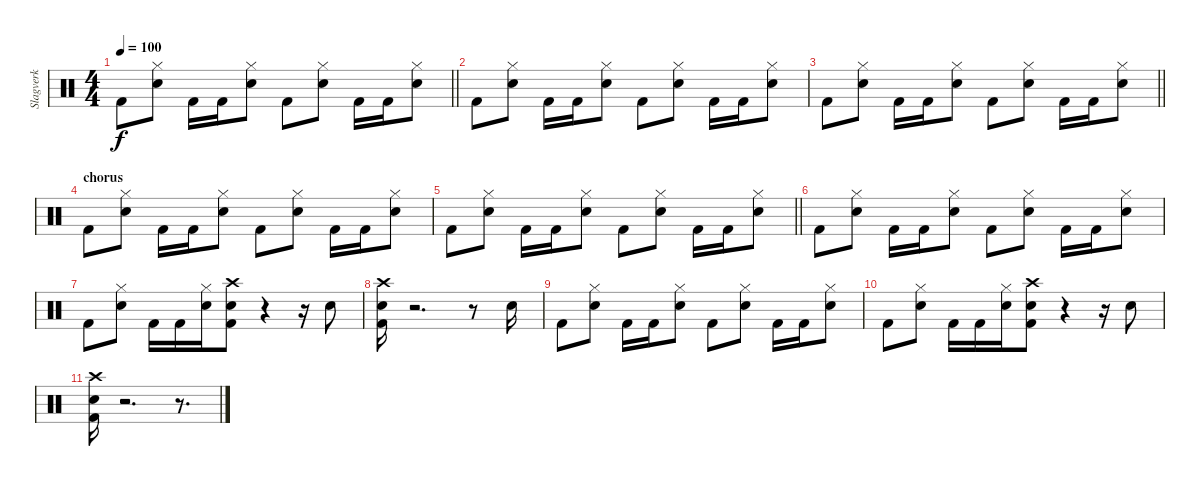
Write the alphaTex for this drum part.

\track ("Slagverk" "Slagverk") {instrument percussion}
\staff {score}
\articulation defaults
\ts (4 4)
\tempo 100
\clef neutral
\barLineRight lightlight
\ks c "Kick (hit) 2".8{dy f}
("Snare (hit) 2" "Hi-Hat (closed)").8 "Kick (hit) 2".16 "Kick (hit) 2".16 ("Snare (hit) 2" "Hi-Hat (closed)").8 "Kick (hit) 2".8 ("Snare (hit) 2" "Hi-Hat (closed)").8 "Kick (hit) 2".16 "Kick (hit) 2".16 ("Snare (hit) 2" "Hi-Hat (closed)").8 |
"Kick (hit) 2".8 ("Snare (hit) 2" "Hi-Hat (closed)").8 "Kick (hit) 2".16 "Kick (hit) 2".16 ("Snare (hit) 2" "Hi-Hat (closed)").8 "Kick (hit) 2".8 ("Snare (hit) 2" "Hi-Hat (closed)").8 "Kick (hit) 2".16 "Kick (hit) 2".16 ("Snare (hit) 2" "Hi-Hat (closed)").8 |
\barLineRight lightlight "Kick (hit) 2".8
("Snare (hit) 2" "Hi-Hat (closed)").8 "Kick (hit) 2".16 "Kick (hit) 2".16 ("Snare (hit) 2" "Hi-Hat (closed)").8 "Kick (hit) 2".8 ("Snare (hit) 2" "Hi-Hat (closed)").8 "Kick (hit) 2".16 "Kick (hit) 2".16 ("Snare (hit) 2" "Hi-Hat (closed)").8 |
\section ("" "chorus")
"Kick (hit) 2".8 ("Snare (hit) 2" "Hi-Hat (closed)").8 "Kick (hit) 2".16 "Kick (hit) 2".16 ("Snare (hit) 2" "Hi-Hat (closed)").8 "Kick (hit) 2".8 ("Snare (hit) 2" "Hi-Hat (closed)").8 "Kick (hit) 2".16 "Kick (hit) 2".16 ("Snare (hit) 2" "Hi-Hat (closed)").8 |
\barLineRight lightlight "Kick (hit) 2".8
("Snare (hit) 2" "Hi-Hat (closed)").8 "Kick (hit) 2".16 "Kick (hit) 2".16 ("Snare (hit) 2" "Hi-Hat (closed)").8 "Kick (hit) 2".8 ("Snare (hit) 2" "Hi-Hat (closed)").8 "Kick (hit) 2".16 "Kick (hit) 2".16 ("Snare (hit) 2" "Hi-Hat (closed)").8 |
"Kick (hit) 2".8 ("Snare (hit) 2" "Hi-Hat (closed)").8 "Kick (hit) 2".16 "Kick (hit) 2".16 ("Snare (hit) 2" "Hi-Hat (closed)").8 "Kick (hit) 2".8 ("Snare (hit) 2" "Hi-Hat (closed)").8 "Kick (hit) 2".16 "Kick (hit) 2".16 ("Snare (hit) 2" "Hi-Hat (closed)").8 |
"Kick (hit) 2".8 ("Snare (hit) 2" "Hi-Hat (closed)").8 "Kick (hit) 2".16 "Kick (hit) 2".16 ("Snare (hit) 2" "Hi-Hat (closed)").16 ("Kick (hit) 2" "Snare (hit) 2" "Crash high (hit)").8 r.4 r.16 "Snare (hit) 2".8 |
("Kick (hit) 2" "Snare (hit) 2" "Crash high (hit)").16 r.2{d} r.8 "Snare (hit) 2".16 |
"Kick (hit) 2".8 ("Snare (hit) 2" "Hi-Hat (closed)").8 "Kick (hit) 2".16 "Kick (hit) 2".16 ("Snare (hit) 2" "Hi-Hat (closed)").8 "Kick (hit) 2".8 ("Snare (hit) 2" "Hi-Hat (closed)").8 "Kick (hit) 2".16 "Kick (hit) 2".16 ("Snare (hit) 2" "Hi-Hat (closed)").8 |
"Kick (hit) 2".8 ("Snare (hit) 2" "Hi-Hat (closed)").8 "Kick (hit) 2".16 "Kick (hit) 2".16 ("Snare (hit) 2" "Hi-Hat (closed)").16 ("Kick (hit) 2" "Snare (hit) 2" "Crash high (hit)").8 r.4 r.16 "Snare (hit) 2".8 |
("Kick (hit) 2" "Snare (hit) 2" "Crash high (hit)").16 r.2{d} r.8{d}
